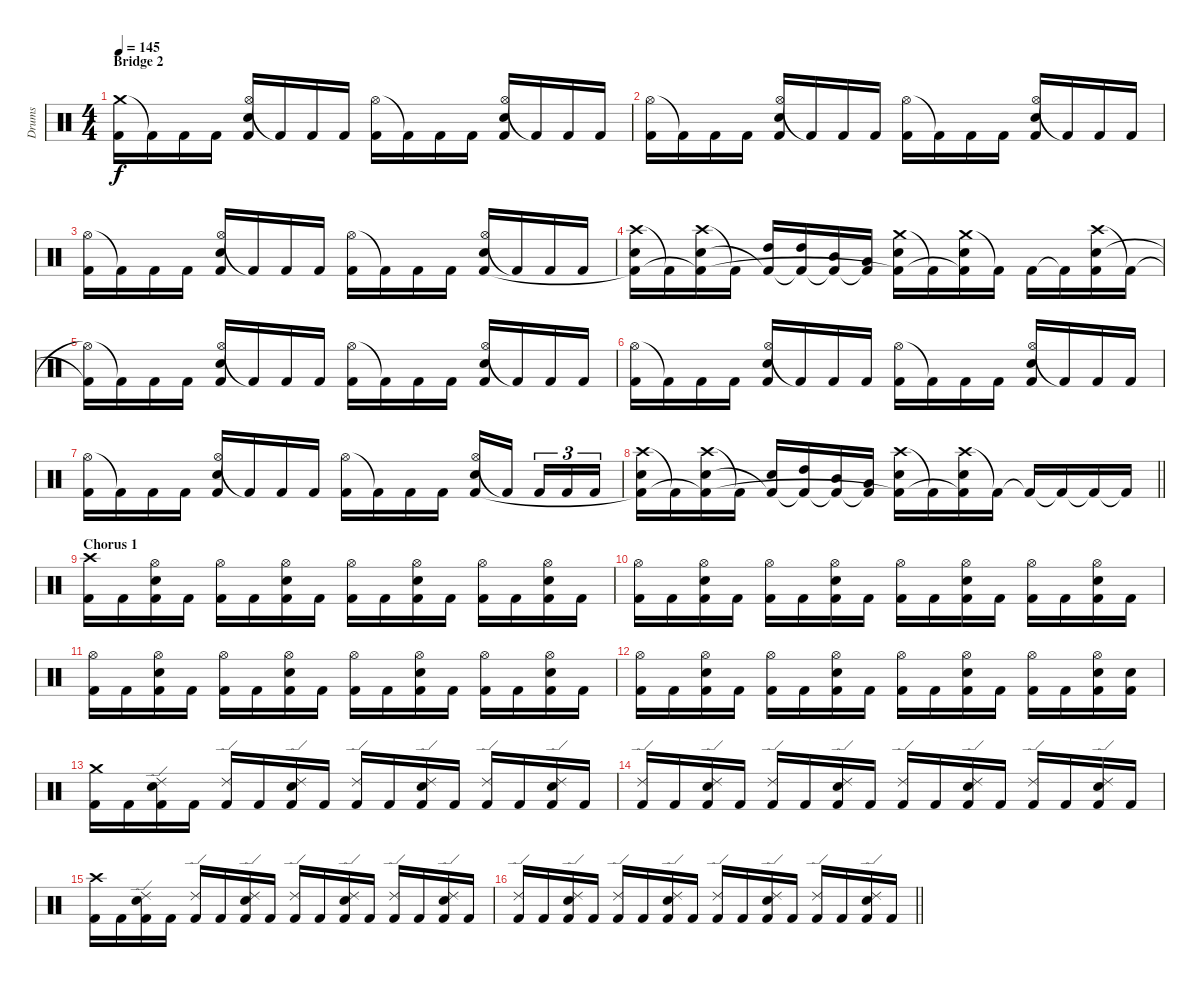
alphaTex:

\track ("Drums" "Drums") {instrument percussion}
\staff {score}
\articulation defaults
\ts (4 4)
\section ("" "Bridge 2")
\tempo 145
\clef neutral
\ks c
("Crash medium (hit)" "Kick (hit) 2").16{dy f} "Kick (hit) 2"{t}.16 "Kick (hit) 2".16 "Kick (hit) 2".16 ("Hi-Hat (open)" "Electric Snare (hit)" "Kick (hit) 2").16 "Kick (hit) 2"{t}.16 "Kick (hit) 2".16 "Kick (hit) 2".16 ("Hi-Hat (open)" "Kick (hit) 2").16 "Kick (hit) 2"{t}.16 "Kick (hit) 2".16 "Kick (hit) 2".16 ("Hi-Hat (open)" "Electric Snare (hit)" "Kick (hit) 2").16 "Kick (hit) 2"{t}.16 "Kick (hit) 2".16 "Kick (hit) 2".16 |
("Hi-Hat (open)" "Kick (hit) 2").16 "Kick (hit) 2"{t}.16 "Kick (hit) 2".16 "Kick (hit) 2".16 ("Hi-Hat (open)" "Electric Snare (hit)" "Kick (hit) 2").16 "Kick (hit) 2"{t}.16 "Kick (hit) 2".16 "Kick (hit) 2".16 ("Hi-Hat (open)" "Kick (hit) 2").16 "Kick (hit) 2"{t}.16 "Kick (hit) 2".16 "Kick (hit) 2".16 ("Hi-Hat (open)" "Electric Snare (hit)" "Kick (hit) 2").16 "Kick (hit) 2"{t}.16 "Kick (hit) 2".16 "Kick (hit) 2".16 |
("Hi-Hat (open)" "Kick (hit) 2").16 "Kick (hit) 2"{t}.16 "Kick (hit) 2".16 "Kick (hit) 2".16 ("Hi-Hat (open)" "Electric Snare (hit)" "Kick (hit) 2").16 "Kick (hit) 2"{t}.16 "Kick (hit) 2".16 "Kick (hit) 2".16 ("Hi-Hat (open)" "Kick (hit) 2").16 "Kick (hit) 2"{t}.16 "Kick (hit) 2".16 "Kick (hit) 2".16 ("Hi-Hat (open)" "Electric Snare (hit)" "Kick (hit) 2").16 "Kick (hit) 2"{t}.16 "Kick (hit) 2".16 "Kick (hit) 2".16 |
("Crash high (hit)" "Electric Snare (hit)" "Kick (hit) 2"{t}).16 "Kick (hit) 2"{t}.16 ("Crash high (hit)" "Electric Snare (hit)" "Kick (hit) 2"{t}).16 "Kick (hit) 2"{t}.16 ("High Tom (hit)" "Kick (hit) 2"{t}).16 ("High Tom (hit)" "Kick (hit) 2"{t}).16 ("Mid Tom (hit)" "Kick (hit) 2"{t}).16 ("Low Tom (hit)" "Kick (hit) 2"{t}).16 ("Crash medium (hit)" "Electric Snare (hit)" "Kick (hit) 2"{t}).16 "Kick (hit) 2"{t}.16 ("Crash medium (hit)" "Electric Snare (hit)" "Kick (hit) 2"{t}).16 "Kick (hit) 2"{t}.16 "Kick (hit) 2".16 "Kick (hit) 2"{t}.16 ("Crash high (hit)" "Electric Snare (hit)" "Kick (hit) 2").16 "Kick (hit) 2"{t}.16 |
("Hi-Hat (open)"{t} "Kick (hit) 2"{t}).16 "Kick (hit) 2"{t}.16 "Kick (hit) 2".16 "Kick (hit) 2".16 ("Hi-Hat (open)" "Electric Snare (hit)" "Kick (hit) 2").16 "Kick (hit) 2"{t}.16 "Kick (hit) 2".16 "Kick (hit) 2".16 ("Hi-Hat (open)" "Kick (hit) 2").16 "Kick (hit) 2"{t}.16 "Kick (hit) 2".16 "Kick (hit) 2".16 ("Hi-Hat (open)" "Electric Snare (hit)" "Kick (hit) 2").16 "Kick (hit) 2"{t}.16 "Kick (hit) 2".16 "Kick (hit) 2".16 |
("Hi-Hat (open)" "Kick (hit) 2").16 "Kick (hit) 2"{t}.16 "Kick (hit) 2".16 "Kick (hit) 2".16 ("Hi-Hat (open)" "Electric Snare (hit)" "Kick (hit) 2").16 "Kick (hit) 2"{t}.16 "Kick (hit) 2".16 "Kick (hit) 2".16 ("Hi-Hat (open)" "Kick (hit) 2").16 "Kick (hit) 2"{t}.16 "Kick (hit) 2".16 "Kick (hit) 2".16 ("Hi-Hat (open)" "Electric Snare (hit)" "Kick (hit) 2").16 "Kick (hit) 2"{t}.16 "Kick (hit) 2".16 "Kick (hit) 2".16 |
("Hi-Hat (open)" "Kick (hit) 2").16 "Kick (hit) 2"{t}.16 "Kick (hit) 2".16 "Kick (hit) 2".16 ("Hi-Hat (open)" "Electric Snare (hit)" "Kick (hit) 2").16 "Kick (hit) 2"{t}.16 "Kick (hit) 2".16 "Kick (hit) 2".16 ("Hi-Hat (open)" "Kick (hit) 2").16 "Kick (hit) 2"{t}.16 "Kick (hit) 2".16 "Kick (hit) 2".16 ("Hi-Hat (open)" "Electric Snare (hit)" "Kick (hit) 2").16 "Kick (hit) 2"{t}.16{beam splitsecondary} "Kick (hit) 2".16{tu (3 2)} "Kick (hit) 2".16{tu (3 2)} "Kick (hit) 2".16{tu (3 2)} |
\barLineRight lightlight
("Crash high (hit)" "Electric Snare (hit)" "Kick (hit) 2"{t}).16 "Kick (hit) 2"{t}.16 ("Crash high (hit)" "Electric Snare (hit)" "Kick (hit) 2"{t}).16 "Kick (hit) 2"{t}.16 ("Electric Snare (hit)" "Kick (hit) 2"{t}).16 ("High Tom (hit)" "Kick (hit) 2"{t}).16 ("Mid Tom (hit)" "Kick (hit) 2"{t}).16 ("Low Tom (hit)" "Kick (hit) 2"{t}).16 ("Crash high (hit)" "Electric Snare (hit)" "Kick (hit) 2"{t}).16 "Kick (hit) 2"{t}.16 ("Crash high (hit)" "Electric Snare (hit)" "Kick (hit) 2"{t}).16 "Kick (hit) 2"{t}.16 "Kick (hit) 2"{t}.16 "Kick (hit) 2"{t}.16 "Kick (hit) 2"{t}.16 "Kick (hit) 2"{t}.16 |
\section ("" "Chorus 1")
("Crash high (hit)" "Kick (hit) 2").16 "Kick (hit) 2".16 ("Hi-Hat (open)" "Electric Snare (hit)" "Kick (hit) 2").16 "Kick (hit) 2".16 ("Hi-Hat (open)" "Kick (hit) 2").16 "Kick (hit) 2".16 ("Hi-Hat (open)" "Electric Snare (hit)" "Kick (hit) 2").16 "Kick (hit) 2".16 ("Hi-Hat (open)" "Kick (hit) 2").16 "Kick (hit) 2".16 ("Hi-Hat (open)" "Electric Snare (hit)" "Kick (hit) 2").16 "Kick (hit) 2".16 ("Hi-Hat (open)" "Kick (hit) 2").16 "Kick (hit) 2".16 ("Hi-Hat (open)" "Electric Snare (hit)" "Kick (hit) 2").16 "Kick (hit) 2".16 |
("Hi-Hat (open)" "Kick (hit) 2").16 "Kick (hit) 2".16 ("Hi-Hat (open)" "Electric Snare (hit)" "Kick (hit) 2").16 "Kick (hit) 2".16 ("Hi-Hat (open)" "Kick (hit) 2").16 "Kick (hit) 2".16 ("Hi-Hat (open)" "Electric Snare (hit)" "Kick (hit) 2").16 "Kick (hit) 2".16 ("Hi-Hat (open)" "Kick (hit) 2").16 "Kick (hit) 2".16 ("Hi-Hat (open)" "Electric Snare (hit)" "Kick (hit) 2").16 "Kick (hit) 2".16 ("Hi-Hat (open)" "Kick (hit) 2").16 "Kick (hit) 2".16 ("Hi-Hat (open)" "Electric Snare (hit)" "Kick (hit) 2").16 "Kick (hit) 2".16 |
("Hi-Hat (open)" "Kick (hit) 2").16 "Kick (hit) 2".16 ("Hi-Hat (open)" "Electric Snare (hit)" "Kick (hit) 2").16 "Kick (hit) 2".16 ("Hi-Hat (open)" "Kick (hit) 2").16 "Kick (hit) 2".16 ("Hi-Hat (open)" "Electric Snare (hit)" "Kick (hit) 2").16 "Kick (hit) 2".16 ("Hi-Hat (open)" "Kick (hit) 2").16 "Kick (hit) 2".16 ("Hi-Hat (open)" "Electric Snare (hit)" "Kick (hit) 2").16 "Kick (hit) 2".16 ("Hi-Hat (open)" "Kick (hit) 2").16 "Kick (hit) 2".16 ("Hi-Hat (open)" "Electric Snare (hit)" "Kick (hit) 2").16 "Kick (hit) 2".16 |
("Hi-Hat (open)" "Kick (hit) 2").16 "Kick (hit) 2".16 ("Hi-Hat (open)" "Electric Snare (hit)" "Kick (hit) 2").16 "Kick (hit) 2".16 ("Hi-Hat (open)" "Kick (hit) 2").16 "Kick (hit) 2".16 ("Hi-Hat (open)" "Electric Snare (hit)" "Kick (hit) 2").16 "Kick (hit) 2".16 ("Hi-Hat (open)" "Kick (hit) 2").16 "Kick (hit) 2".16 ("Hi-Hat (open)" "Electric Snare (hit)" "Kick (hit) 2").16 "Kick (hit) 2".16 ("Hi-Hat (open)" "Kick (hit) 2").16 "Kick (hit) 2".16 ("Hi-Hat (open)" "Electric Snare (hit)" "Kick (hit) 2").16 ("Electric Snare (hit)" "Kick (hit) 2").16 |
("Crash medium (hit)" "Kick (hit) 2").16 "Kick (hit) 2".16 ("Ride (edge) 2" "Electric Snare (hit)" "Kick (hit) 2").16 "Kick (hit) 2".16 ("Ride (edge) 2" "Kick (hit) 2").16 "Kick (hit) 2".16 ("Ride (edge) 2" "Electric Snare (hit)" "Kick (hit) 2").16 "Kick (hit) 2".16 ("Ride (edge) 2" "Kick (hit) 2").16 "Kick (hit) 2".16 ("Ride (edge) 2" "Electric Snare (hit)" "Kick (hit) 2").16 "Kick (hit) 2".16 ("Ride (edge) 2" "Kick (hit) 2").16 "Kick (hit) 2".16 ("Ride (edge) 2" "Electric Snare (hit)" "Kick (hit) 2").16 "Kick (hit) 2".16 |
("Ride (edge) 2" "Kick (hit) 2").16 "Kick (hit) 2".16 ("Ride (edge) 2" "Electric Snare (hit)" "Kick (hit) 2").16 "Kick (hit) 2".16 ("Ride (edge) 2" "Kick (hit) 2").16 "Kick (hit) 2".16 ("Ride (edge) 2" "Electric Snare (hit)" "Kick (hit) 2").16 "Kick (hit) 2".16 ("Ride (edge) 2" "Kick (hit) 2").16 "Kick (hit) 2".16 ("Ride (edge) 2" "Electric Snare (hit)" "Kick (hit) 2").16 "Kick (hit) 2".16 ("Ride (edge) 2" "Kick (hit) 2").16 "Kick (hit) 2".16 ("Ride (edge) 2" "Electric Snare (hit)" "Kick (hit) 2").16 "Kick (hit) 2".16 |
("Crash high (hit)" "Kick (hit) 2").16 "Kick (hit) 2".16 ("Ride (edge) 2" "Electric Snare (hit)" "Kick (hit) 2").16 "Kick (hit) 2".16 ("Ride (edge) 2" "Kick (hit) 2").16 "Kick (hit) 2".16 ("Ride (edge) 2" "Electric Snare (hit)" "Kick (hit) 2").16 "Kick (hit) 2".16 ("Ride (edge) 2" "Kick (hit) 2").16 "Kick (hit) 2".16 ("Ride (edge) 2" "Electric Snare (hit)" "Kick (hit) 2").16 "Kick (hit) 2".16 ("Ride (edge) 2" "Kick (hit) 2").16 "Kick (hit) 2".16 ("Ride (edge) 2" "Electric Snare (hit)" "Kick (hit) 2").16 "Kick (hit) 2".16 |
\barLineRight lightlight
("Ride (edge) 2" "Kick (hit) 2").16 "Kick (hit) 2".16 ("Ride (edge) 2" "Electric Snare (hit)" "Kick (hit) 2").16 "Kick (hit) 2".16 ("Ride (edge) 2" "Kick (hit) 2").16 "Kick (hit) 2".16 ("Ride (edge) 2" "Electric Snare (hit)" "Kick (hit) 2").16 "Kick (hit) 2".16 ("Ride (edge) 2" "Kick (hit) 2").16 "Kick (hit) 2".16 ("Ride (edge) 2" "Electric Snare (hit)" "Kick (hit) 2").16 "Kick (hit) 2".16 ("Ride (edge) 2" "Kick (hit) 2").16 "Kick (hit) 2".16 ("Ride (edge) 2" "Electric Snare (hit)" "Kick (hit) 2").16 "Kick (hit) 2".16
